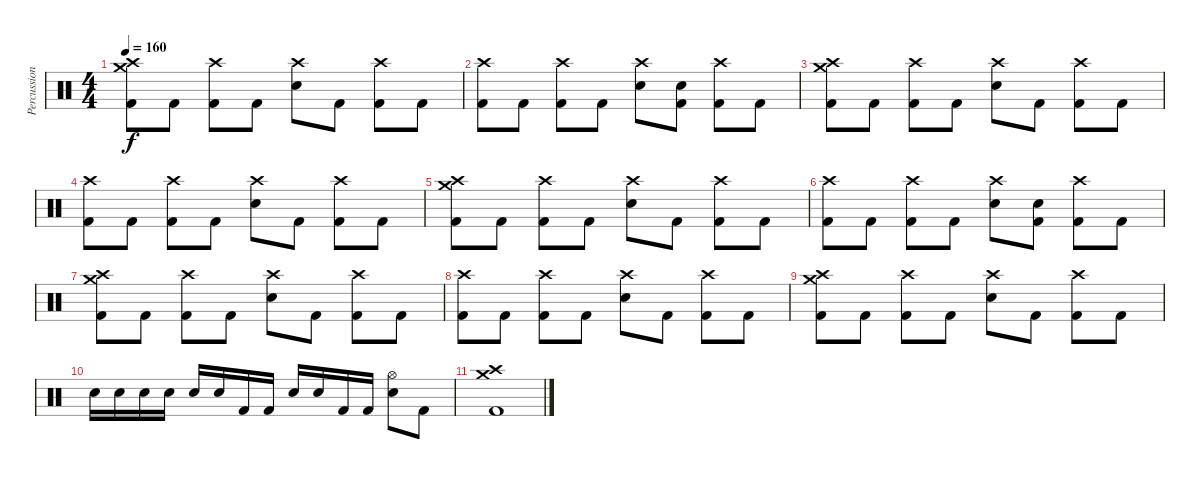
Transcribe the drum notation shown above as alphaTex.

\track ("Percussion" "Percussion") {instrument percussion}
\staff {score}
\articulation defaults
\ts (4 4)
\tempo 160
\clef neutral
\ks c
("Crash medium (hit)" "Crash high (hit)" "Kick (hit) 2").8{dy f} "Kick (hit) 2".8 ("Crash high (hit)" "Kick (hit) 2").8 "Kick (hit) 2".8 ("Crash high (hit)" "Electric Snare (hit)").8 "Kick (hit) 2".8 ("Crash high (hit)" "Kick (hit) 2").8 "Kick (hit) 2".8 |
("Crash high (hit)" "Kick (hit) 2").8 "Kick (hit) 2".8 ("Crash high (hit)" "Kick (hit) 2").8 "Kick (hit) 2".8 ("Crash high (hit)" "Electric Snare (hit)").8 ("Electric Snare (hit)" "Kick (hit) 2").8 ("Crash high (hit)" "Kick (hit) 2").8 "Kick (hit) 2".8 |
("Crash medium (hit)" "Crash high (hit)" "Kick (hit) 2").8 "Kick (hit) 2".8 ("Crash high (hit)" "Kick (hit) 2").8 "Kick (hit) 2".8 ("Crash high (hit)" "Electric Snare (hit)").8 "Kick (hit) 2".8 ("Crash high (hit)" "Kick (hit) 2").8 "Kick (hit) 2".8 |
("Crash high (hit)" "Kick (hit) 2").8 "Kick (hit) 2".8 ("Crash high (hit)" "Kick (hit) 2").8 "Kick (hit) 2".8 ("Crash high (hit)" "Electric Snare (hit)").8 "Kick (hit) 2".8 ("Crash high (hit)" "Kick (hit) 2").8 "Kick (hit) 2".8 |
("Crash medium (hit)" "Crash high (hit)" "Kick (hit) 2").8 "Kick (hit) 2".8 ("Crash high (hit)" "Kick (hit) 2").8 "Kick (hit) 2".8 ("Crash high (hit)" "Electric Snare (hit)").8 "Kick (hit) 2".8 ("Crash high (hit)" "Kick (hit) 2").8 "Kick (hit) 2".8 |
("Crash high (hit)" "Kick (hit) 2").8 "Kick (hit) 2".8 ("Crash high (hit)" "Kick (hit) 2").8 "Kick (hit) 2".8 ("Crash high (hit)" "Electric Snare (hit)").8 ("Electric Snare (hit)" "Kick (hit) 2").8 ("Crash high (hit)" "Kick (hit) 2").8 "Kick (hit) 2".8 |
("Crash medium (hit)" "Crash high (hit)" "Kick (hit) 2").8 "Kick (hit) 2".8 ("Crash high (hit)" "Kick (hit) 2").8 "Kick (hit) 2".8 ("Crash high (hit)" "Electric Snare (hit)").8 "Kick (hit) 2".8 ("Crash high (hit)" "Kick (hit) 2").8 "Kick (hit) 2".8 |
("Crash high (hit)" "Kick (hit) 2").8 "Kick (hit) 2".8 ("Crash high (hit)" "Kick (hit) 2").8 "Kick (hit) 2".8 ("Crash high (hit)" "Electric Snare (hit)").8 "Kick (hit) 2".8 ("Crash high (hit)" "Kick (hit) 2").8 "Kick (hit) 2".8 |
("Crash medium (hit)" "Crash high (hit)" "Kick (hit) 2").8 "Kick (hit) 2".8 ("Crash high (hit)" "Kick (hit) 2").8 "Kick (hit) 2".8 ("Crash high (hit)" "Electric Snare (hit)").8 "Kick (hit) 2".8 ("Crash high (hit)" "Kick (hit) 2").8 "Kick (hit) 2".8 |
"Electric Snare (hit)".16 "Electric Snare (hit)".16 "Electric Snare (hit)".16 "Electric Snare (hit)".16 "Electric Snare (hit)".16 "Electric Snare (hit)".16 "Kick (hit) 2".16 "Kick (hit) 2".16 "Electric Snare (hit)".16 "Electric Snare (hit)".16 "Kick (hit) 2".16 "Kick (hit) 2".16 ("Hi-Hat (open)" "Electric Snare (hit)").8 "Kick (hit) 2".8 |
("Crash medium (hit)" "Crash high (hit)" "Kick (hit) 2").1
